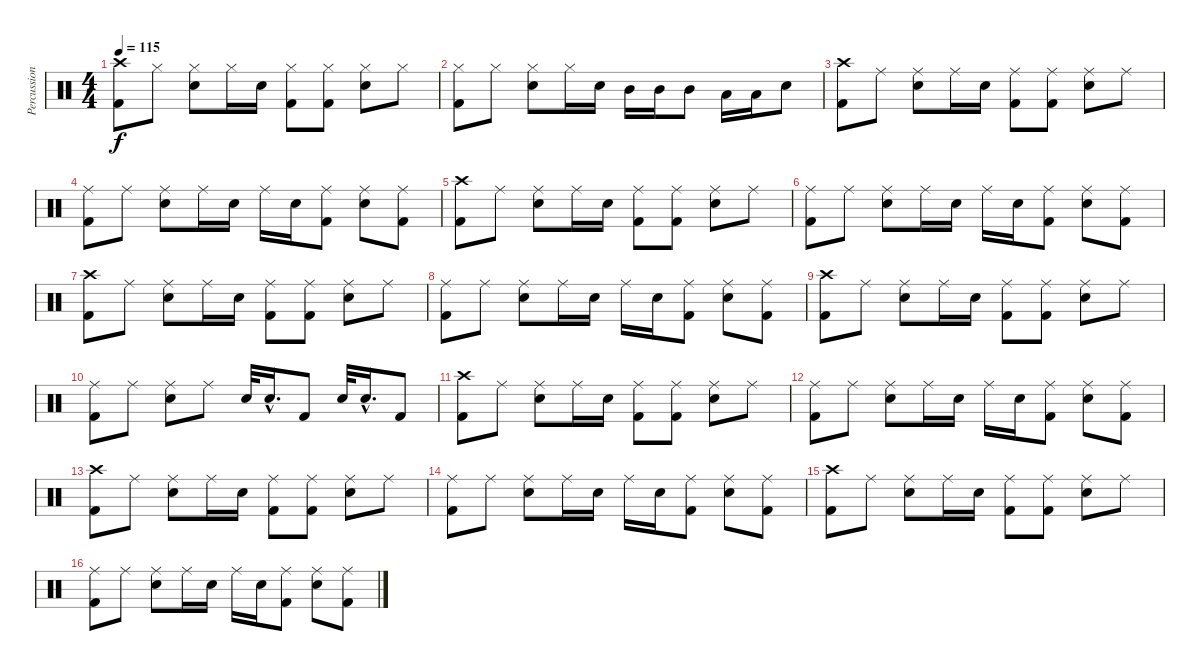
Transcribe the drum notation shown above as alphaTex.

\track ("Percussion" "Percussion") {instrument percussion}
\staff {score}
\articulation defaults
\ts (4 4)
\tempo 115
\clef neutral
\ks c
("Crash high (hit)" "Kick (hit) 2").8{dy f} "Hi-Hat (closed)".8 ("Hi-Hat (closed)" "Snare (hit) 2").8 "Hi-Hat (closed)".16 "Snare (hit) 2".16 ("Hi-Hat (closed)" "Kick (hit) 2").8 ("Hi-Hat (closed)" "Kick (hit) 2").8 ("Hi-Hat (closed)" "Snare (hit) 2").8 "Hi-Hat (closed)".8 |
("Hi-Hat (closed)" "Kick (hit) 2").8 "Hi-Hat (closed)".8 ("Hi-Hat (closed)" "Snare (hit) 2").8 "Hi-Hat (closed)".16 "Snare (hit) 2".16 "Mid Tom (hit)".16 "Mid Tom (hit)".16 "Mid Tom (hit)".8 "Low Tom (hit)".16 "Low Tom (hit)".16 "Snare (hit) 2".8 |
("Crash high (hit)" "Kick (hit) 2").8 "Ride (middle)".8 ("Ride (middle)" "Snare (hit) 2").8 "Ride (middle)".16 "Snare (hit) 2".16 ("Ride (middle)" "Kick (hit) 2").8 ("Ride (middle)" "Kick (hit) 2").8 ("Ride (middle)" "Snare (hit) 2").8 "Ride (middle)".8 |
("Ride (middle)" "Kick (hit) 2").8 "Ride (middle)".8 ("Ride (middle)" "Snare (hit) 2").8 "Ride (middle)".16 "Snare (hit) 2".16 "Ride (middle)".16 "Snare (hit) 2".16 ("Ride (middle)" "Kick (hit) 2").8 ("Ride (middle)" "Snare (hit) 2").8 ("Ride (middle)" "Kick (hit) 2").8 |
("Crash high (hit)" "Kick (hit) 2").8 "Ride (middle)".8 ("Ride (middle)" "Snare (hit) 2").8 "Ride (middle)".16 "Snare (hit) 2".16 ("Ride (middle)" "Kick (hit) 2").8 ("Ride (middle)" "Kick (hit) 2").8 ("Ride (middle)" "Snare (hit) 2").8 "Ride (middle)".8 |
("Ride (middle)" "Kick (hit) 2").8 "Ride (middle)".8 ("Ride (middle)" "Snare (hit) 2").8 "Ride (middle)".16 "Snare (hit) 2".16 "Ride (middle)".16 "Snare (hit) 2".16 ("Ride (middle)" "Kick (hit) 2").8 ("Ride (middle)" "Snare (hit) 2").8 ("Ride (middle)" "Kick (hit) 2").8 |
("Crash high (hit)" "Kick (hit) 2").8 "Ride (middle)".8 ("Ride (middle)" "Snare (hit) 2").8 "Ride (middle)".16 "Snare (hit) 2".16 ("Ride (middle)" "Kick (hit) 2").8 ("Ride (middle)" "Kick (hit) 2").8 ("Ride (middle)" "Snare (hit) 2").8 "Ride (middle)".8 |
("Ride (middle)" "Kick (hit) 2").8 "Ride (middle)".8 ("Ride (middle)" "Snare (hit) 2").8 "Ride (middle)".16 "Snare (hit) 2".16 "Ride (middle)".16 "Snare (hit) 2".16 ("Ride (middle)" "Kick (hit) 2").8 ("Ride (middle)" "Snare (hit) 2").8 ("Ride (middle)" "Kick (hit) 2").8 |
("Crash high (hit)" "Kick (hit) 2").8 "Ride (middle)".8 ("Ride (middle)" "Snare (hit) 2").8 "Ride (middle)".16 "Snare (hit) 2".16 ("Ride (middle)" "Kick (hit) 2").8 ("Ride (middle)" "Kick (hit) 2").8 ("Ride (middle)" "Snare (hit) 2").8 "Ride (middle)".8 |
("Ride (middle)" "Kick (hit) 2").8 "Ride (middle)".8 ("Ride (middle)" "Snare (hit) 2").8 "Ride (middle)".8 "Snare (hit) 2".32 "Snare (hit) 2"{hac}.16{d} "Kick (hit) 2".8 "Snare (hit) 2".32 "Snare (hit) 2"{hac}.16{d} "Kick (hit) 2".8 |
("Crash high (hit)" "Kick (hit) 2").8 "Ride (middle)".8 ("Ride (middle)" "Snare (hit) 2").8 "Ride (middle)".16 "Snare (hit) 2".16 ("Ride (middle)" "Kick (hit) 2").8 ("Ride (middle)" "Kick (hit) 2").8 ("Ride (middle)" "Snare (hit) 2").8 "Ride (middle)".8 |
("Ride (middle)" "Kick (hit) 2").8 "Ride (middle)".8 ("Ride (middle)" "Snare (hit) 2").8 "Ride (middle)".16 "Snare (hit) 2".16 "Ride (middle)".16 "Snare (hit) 2".16 ("Ride (middle)" "Kick (hit) 2").8 ("Ride (middle)" "Snare (hit) 2").8 ("Ride (middle)" "Kick (hit) 2").8 |
("Crash high (hit)" "Kick (hit) 2").8 "Ride (middle)".8 ("Ride (middle)" "Snare (hit) 2").8 "Ride (middle)".16 "Snare (hit) 2".16 ("Ride (middle)" "Kick (hit) 2").8 ("Ride (middle)" "Kick (hit) 2").8 ("Ride (middle)" "Snare (hit) 2").8 "Ride (middle)".8 |
("Ride (middle)" "Kick (hit) 2").8 "Ride (middle)".8 ("Ride (middle)" "Snare (hit) 2").8 "Ride (middle)".16 "Snare (hit) 2".16 "Ride (middle)".16 "Snare (hit) 2".16 ("Ride (middle)" "Kick (hit) 2").8 ("Ride (middle)" "Snare (hit) 2").8 ("Ride (middle)" "Kick (hit) 2").8 |
("Crash high (hit)" "Kick (hit) 2").8 "Ride (middle)".8 ("Ride (middle)" "Snare (hit) 2").8 "Ride (middle)".16 "Snare (hit) 2".16 ("Ride (middle)" "Kick (hit) 2").8 ("Ride (middle)" "Kick (hit) 2").8 ("Ride (middle)" "Snare (hit) 2").8 "Ride (middle)".8 |
("Ride (middle)" "Kick (hit) 2").8 "Ride (middle)".8 ("Ride (middle)" "Snare (hit) 2").8 "Ride (middle)".16 "Snare (hit) 2".16 "Ride (middle)".16 "Snare (hit) 2".16 ("Ride (middle)" "Kick (hit) 2").8 ("Ride (middle)" "Snare (hit) 2").8 ("Ride (middle)" "Kick (hit) 2").8
